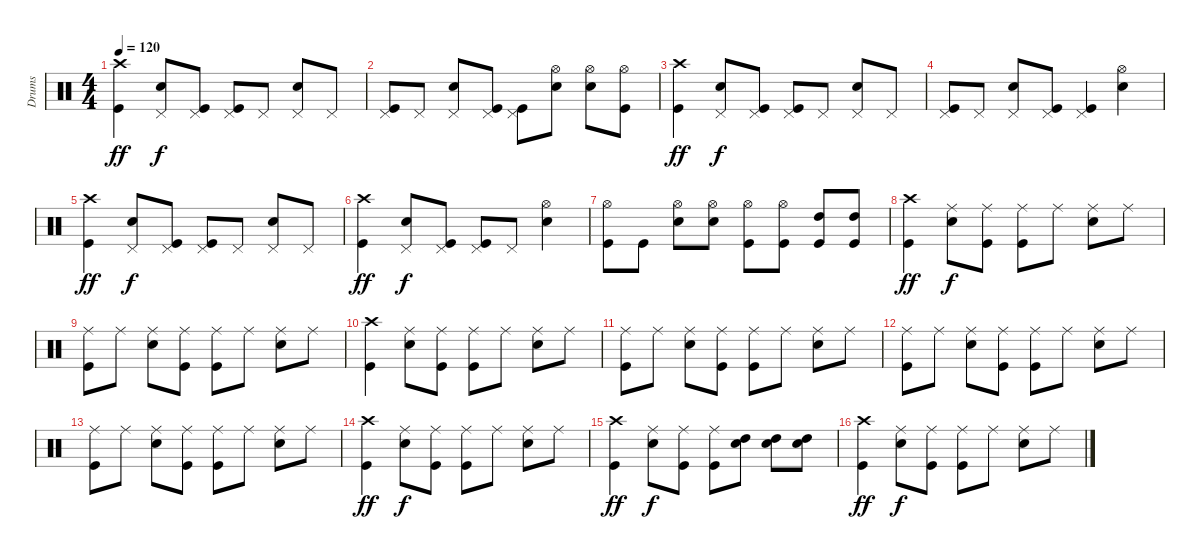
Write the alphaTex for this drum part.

\track ("Drums" "Drums") {instrument percussion}
\staff {score}
\articulation defaults
\ts (4 4)
\tempo 120
\clef neutral
\ks c
("Kick (hit)" "Crash high (hit)").4{dy ff} ("Snare (hit) 2" "Pedal Hi-Hat (hit)").8{dy f} ("Kick (hit)" "Pedal Hi-Hat (hit)").8 ("Kick (hit)" "Pedal Hi-Hat (hit)").8 "Pedal Hi-Hat (hit)".8 ("Snare (hit) 2" "Pedal Hi-Hat (hit)").8 "Pedal Hi-Hat (hit)".8 |
("Kick (hit)" "Pedal Hi-Hat (hit)").8 "Pedal Hi-Hat (hit)".8 ("Snare (hit) 2" "Pedal Hi-Hat (hit)").8 ("Kick (hit)" "Pedal Hi-Hat (hit)").8 ("Kick (hit)" "Pedal Hi-Hat (hit)").8 ("Snare (hit) 2" "Hi-Hat (open)").8 ("Snare (hit) 2" "Hi-Hat (open)").8 ("Kick (hit)" "Hi-Hat (open)").8 |
("Kick (hit)" "Crash high (hit)").4{dy ff} ("Snare (hit) 2" "Pedal Hi-Hat (hit)").8{dy f} ("Kick (hit)" "Pedal Hi-Hat (hit)").8 ("Kick (hit)" "Pedal Hi-Hat (hit)").8 "Pedal Hi-Hat (hit)".8 ("Snare (hit) 2" "Pedal Hi-Hat (hit)").8 "Pedal Hi-Hat (hit)".8 |
("Kick (hit)" "Pedal Hi-Hat (hit)").8 "Pedal Hi-Hat (hit)".8 ("Snare (hit) 2" "Pedal Hi-Hat (hit)").8 ("Kick (hit)" "Pedal Hi-Hat (hit)").8 ("Kick (hit)" "Pedal Hi-Hat (hit)").4 ("Snare (hit) 2" "Hi-Hat (open)").4 |
("Kick (hit)" "Crash high (hit)").4{dy ff} ("Snare (hit) 2" "Pedal Hi-Hat (hit)").8{dy f} ("Kick (hit)" "Pedal Hi-Hat (hit)").8 ("Kick (hit)" "Pedal Hi-Hat (hit)").8 "Pedal Hi-Hat (hit)".8 ("Snare (hit) 2" "Pedal Hi-Hat (hit)").8 "Pedal Hi-Hat (hit)".8 |
("Kick (hit)" "Crash high (hit)").4{dy ff} ("Snare (hit) 2" "Pedal Hi-Hat (hit)").8{dy f} ("Kick (hit)" "Pedal Hi-Hat (hit)").8 ("Kick (hit)" "Pedal Hi-Hat (hit)").8 "Pedal Hi-Hat (hit)".8 ("Snare (hit) 2" "Hi-Hat (open)").4 |
("Kick (hit)" "Hi-Hat (open)").8 "Kick (hit)".8 ("Snare (hit) 2" "Hi-Hat (open)").8 ("Snare (hit) 2" "Hi-Hat (open)").8 ("Kick (hit)" "Hi-Hat (open)").8 ("Kick (hit)" "Hi-Hat (open)").8 ("Kick (hit)" "High Tom (hit)").8 ("Kick (hit)" "High Tom (hit)").8 |
("Kick (hit)" "Crash high (hit)").4{dy ff} ("Snare (hit) 2" "Ride (middle)").8{dy f} ("Kick (hit)" "Ride (middle)").8 ("Kick (hit)" "Ride (middle)").8 "Ride (middle)".8 ("Snare (hit) 2" "Ride (middle)").8 "Ride (middle)".8 |
("Kick (hit)" "Ride (middle)").8 "Ride (middle)".8 ("Snare (hit) 2" "Ride (middle)").8 ("Kick (hit)" "Ride (middle)").8 ("Kick (hit)" "Ride (middle)").8 "Ride (middle)".8 ("Snare (hit) 2" "Ride (middle)").8 "Ride (middle)".8 |
("Kick (hit)" "Crash high (hit)").4 ("Snare (hit) 2" "Ride (middle)").8 ("Kick (hit)" "Ride (middle)").8 ("Kick (hit)" "Ride (middle)").8 "Ride (middle)".8 ("Snare (hit) 2" "Ride (middle)").8 "Ride (middle)".8 |
("Kick (hit)" "Ride (middle)").8 "Ride (middle)".8 ("Snare (hit) 2" "Ride (middle)").8 ("Kick (hit)" "Ride (middle)").8 ("Kick (hit)" "Ride (middle)").8 "Ride (middle)".8 ("Snare (hit) 2" "Ride (middle)").8 "Ride (middle)".8 |
("Kick (hit)" "Ride (middle)").8 "Ride (middle)".8 ("Snare (hit) 2" "Ride (middle)").8 ("Kick (hit)" "Ride (middle)").8 ("Kick (hit)" "Ride (middle)").8 "Ride (middle)".8 ("Snare (hit) 2" "Ride (middle)").8 "Ride (middle)".8 |
("Kick (hit)" "Ride (middle)").8 "Ride (middle)".8 ("Snare (hit) 2" "Ride (middle)").8 ("Kick (hit)" "Ride (middle)").8 ("Kick (hit)" "Ride (middle)").8 "Ride (middle)".8 ("Snare (hit) 2" "Ride (middle)").8 "Ride (middle)".8 |
("Kick (hit)" "Crash high (hit)").4{dy ff} ("Snare (hit) 2" "Ride (middle)").8{dy f} ("Kick (hit)" "Ride (middle)").8 ("Kick (hit)" "Ride (middle)").8 "Ride (middle)".8 ("Snare (hit) 2" "Ride (middle)").8 "Ride (middle)".8 |
("Kick (hit)" "Crash high (hit)").4{dy ff} ("Snare (hit) 2" "Ride (middle)").8{dy f} ("Kick (hit)" "Ride (middle)").8 ("Kick (hit)" "Ride (middle)").8 ("Snare (hit) 2" "High Tom (hit)").8 ("Snare (hit) 2" "High Tom (hit)").8 ("Snare (hit) 2" "High Tom (hit)").8 |
("Kick (hit)" "Crash high (hit)").4{dy ff} ("Snare (hit) 2" "Ride (middle)").8{dy f} ("Kick (hit)" "Ride (middle)").8 ("Kick (hit)" "Ride (middle)").8 "Ride (middle)".8 ("Snare (hit) 2" "Ride (middle)").8 "Ride (middle)".8
